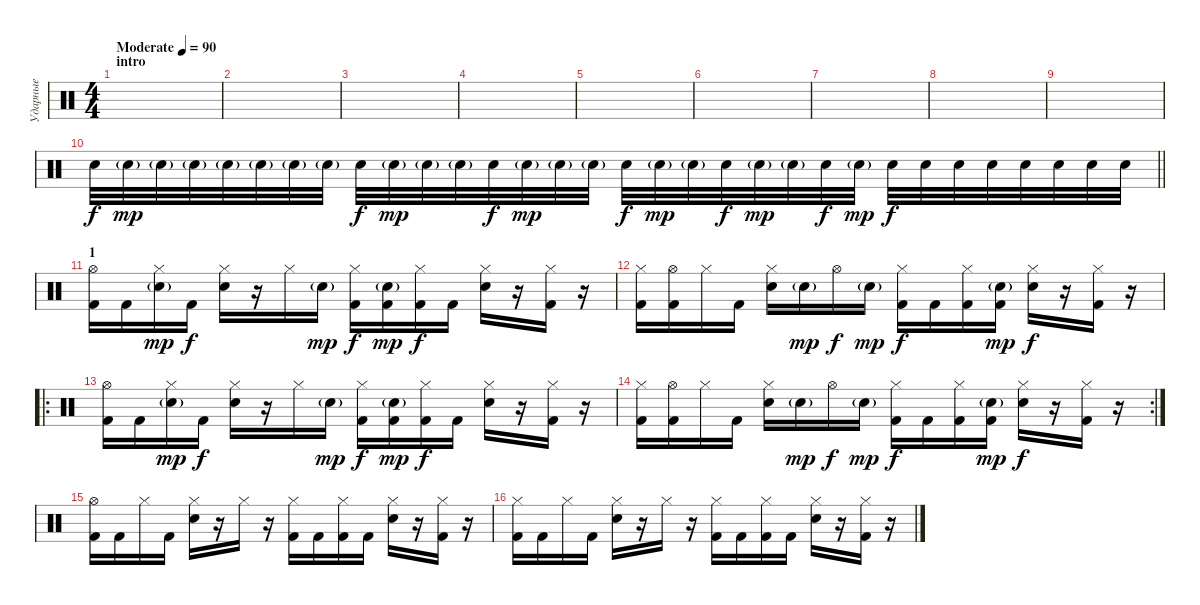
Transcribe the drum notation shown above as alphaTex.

\track ("Ударные" "Ударные") {instrument percussion}
\staff {score}
\articulation defaults
\ts (4 4)
\section ("" "intro")
\tempo (90 "Moderate")
\clef neutral
\ks c
|
|
|
|
|
|
|
|
|
\barLineRight lightlight "Electric Snare (hit)".32{volume 6 balance 16} "Electric Snare (hit)"{g}.32{dy mp} "Electric Snare (hit)"{g}.32 "Electric Snare (hit)"{g}.32 "Electric Snare (hit)"{g}.32 "Electric Snare (hit)"{g}.32 "Electric Snare (hit)"{g}.32 "Electric Snare (hit)"{g}.32 "Electric Snare (hit)".32{dy f} "Electric Snare (hit)"{g}.32{dy mp} "Electric Snare (hit)"{g}.32 "Electric Snare (hit)"{g}.32 "Electric Snare (hit)".32{dy f} "Electric Snare (hit)"{g}.32{dy mp} "Electric Snare (hit)"{g}.32 "Electric Snare (hit)"{g}.32 "Electric Snare (hit)".32{dy f} "Electric Snare (hit)"{g}.32{dy mp} "Electric Snare (hit)"{g}.32 "Electric Snare (hit)".32{dy f} "Electric Snare (hit)"{g}.32{dy mp} "Electric Snare (hit)"{g}.32 "Electric Snare (hit)".32{dy f} "Electric Snare (hit)"{g}.32{dy mp} "Electric Snare (hit)".32{dy f} "Electric Snare (hit)".32 "Electric Snare (hit)".32 "Electric Snare (hit)".32 "Electric Snare (hit)".32{volume 10 balance 8} "Electric Snare (hit)".32 "Electric Snare (hit)".32 "Electric Snare (hit)".32
|
\section ("" "1")
("Kick (hit) 2" "Hi-Hat (open)").16{volume 14} "Kick (hit) 2".16 ("Hi-Hat (closed)" "Electric Snare (hit)"{g}).16{dy mp} "Kick (hit) 2".16{dy f} ("Electric Snare (hit)" "Hi-Hat (closed)").16 r.16 "Hi-Hat (closed)".16 "Electric Snare (hit)"{g}.16{dy mp} ("Kick (hit) 2" "Hi-Hat (closed)").16{dy f} ("Kick (hit) 2" "Electric Snare (hit)"{g}).16{dy mp} ("Kick (hit) 2" "Hi-Hat (closed)").16{dy f} "Kick (hit) 2".16 ("Electric Snare (hit)" "Hi-Hat (closed)").16 r.16 ("Kick (hit) 2" "Hi-Hat (closed)").16 r.16 |
("Kick (hit) 2" "Hi-Hat (closed)").16 ("Kick (hit) 2" "Hi-Hat (open)").16 "Hi-Hat (closed)".16 "Kick (hit) 2".16 ("Electric Snare (hit)" "Hi-Hat (closed)").16 "Electric Snare (hit)"{g}.16{dy mp} "Hi-Hat (open)".16{dy f} "Electric Snare (hit)"{g}.16{dy mp} ("Kick (hit) 2" "Hi-Hat (closed)").16{dy f} "Kick (hit) 2".16 ("Kick (hit) 2" "Hi-Hat (closed)").16 ("Kick (hit) 2" "Electric Snare (hit)"{g}).16{dy mp} ("Electric Snare (hit)" "Hi-Hat (closed)").16{dy f} r.16 ("Kick (hit) 2" "Hi-Hat (closed)").16 r.16 |
\ro
("Kick (hit) 2" "Hi-Hat (open)").16 "Kick (hit) 2".16 ("Hi-Hat (closed)" "Electric Snare (hit)"{g}).16{dy mp} "Kick (hit) 2".16{dy f} ("Electric Snare (hit)" "Hi-Hat (closed)").16 r.16 "Hi-Hat (closed)".16 "Electric Snare (hit)"{g}.16{dy mp} ("Kick (hit) 2" "Hi-Hat (closed)").16{dy f} ("Kick (hit) 2" "Electric Snare (hit)"{g}).16{dy mp} ("Kick (hit) 2" "Hi-Hat (closed)").16{dy f} "Kick (hit) 2".16 ("Electric Snare (hit)" "Hi-Hat (closed)").16 r.16 ("Kick (hit) 2" "Hi-Hat (closed)").16 r.16 |
\rc 2
("Kick (hit) 2" "Hi-Hat (closed)").16 ("Kick (hit) 2" "Hi-Hat (open)").16 "Hi-Hat (closed)".16 "Kick (hit) 2".16 ("Electric Snare (hit)" "Hi-Hat (closed)").16 "Electric Snare (hit)"{g}.16{dy mp} "Hi-Hat (open)".16{dy f} "Electric Snare (hit)"{g}.16{dy mp} ("Kick (hit) 2" "Hi-Hat (closed)").16{dy f} "Kick (hit) 2".16 ("Kick (hit) 2" "Hi-Hat (closed)").16 ("Kick (hit) 2" "Electric Snare (hit)"{g}).16{dy mp} ("Electric Snare (hit)" "Hi-Hat (closed)").16{dy f} r.16 ("Kick (hit) 2" "Hi-Hat (closed)").16 r.16 |
("Kick (hit) 2" "Hi-Hat (open)").16 "Kick (hit) 2".16 "Hi-Hat (closed)".16 "Kick (hit) 2".16 ("Electric Snare (hit)" "Hi-Hat (closed)").16 r.16 "Hi-Hat (closed)".16 r.16 ("Kick (hit) 2" "Hi-Hat (closed)").16 "Kick (hit) 2".16 ("Kick (hit) 2" "Hi-Hat (closed)").16 "Kick (hit) 2".16 ("Electric Snare (hit)" "Hi-Hat (closed)").16 r.16 ("Kick (hit) 2" "Hi-Hat (closed)").16 r.16 |
("Kick (hit) 2" "Hi-Hat (closed)").16 "Kick (hit) 2".16 "Hi-Hat (closed)".16 "Kick (hit) 2".16 ("Electric Snare (hit)" "Hi-Hat (closed)").16 r.16 "Hi-Hat (closed)".16 r.16 ("Kick (hit) 2" "Hi-Hat (closed)").16 "Kick (hit) 2".16 ("Kick (hit) 2" "Hi-Hat (closed)").16 "Kick (hit) 2".16 ("Electric Snare (hit)" "Hi-Hat (closed)").16 r.16 ("Kick (hit) 2" "Hi-Hat (closed)").16 r.16
